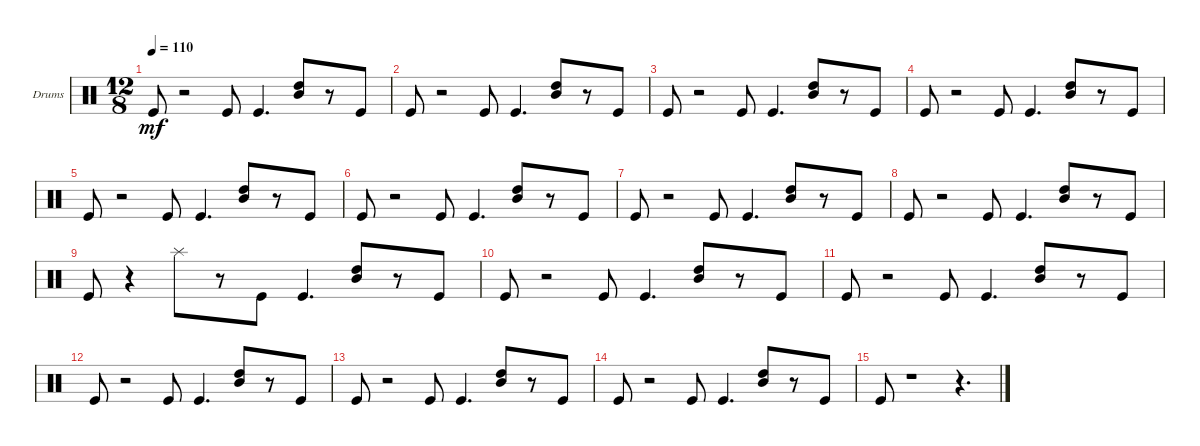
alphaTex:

\bracketExtendMode groupsimilarinstruments
\firstSystemTrackNameOrientation horizontal
\otherSystemsTrackNameOrientation horizontal
\track ("Drum Set" "Drums") {instrument percussion}
\staff {score}
\articulation defaults
\ts (12 8)
\tempo 110
\clef neutral
\ks c "Kick (hit)".8{dy mf}
r.2 "Kick (hit)".8 "Kick (hit)".4{d} ("Mid Tom (hit)" "High Tom (hit)").8 r.8 "Kick (hit)".8 |
"Kick (hit)".8 r.2 "Kick (hit)".8 "Kick (hit)".4{d} ("Mid Tom (hit)" "High Tom (hit)").8 r.8 "Kick (hit)".8 |
"Kick (hit)".8 r.2 "Kick (hit)".8 "Kick (hit)".4{d} ("Mid Tom (hit)" "High Tom (hit)").8 r.8 "Kick (hit)".8 |
"Kick (hit)".8 r.2 "Kick (hit)".8 "Kick (hit)".4{d} ("Mid Tom (hit)" "High Tom (hit)").8 r.8 "Kick (hit)".8 |
"Kick (hit)".8 r.2 "Kick (hit)".8 "Kick (hit)".4{d} ("Mid Tom (hit)" "High Tom (hit)").8 r.8 "Kick (hit)".8 |
"Kick (hit)".8 r.2 "Kick (hit)".8 "Kick (hit)".4{d} ("Mid Tom (hit)" "High Tom (hit)").8 r.8 "Kick (hit)".8 |
"Kick (hit)".8 r.2 "Kick (hit)".8 "Kick (hit)".4{d} ("Mid Tom (hit)" "High Tom (hit)").8 r.8 "Kick (hit)".8 |
"Kick (hit)".8 r.2 "Kick (hit)".8 "Kick (hit)".4{d} ("Mid Tom (hit)" "High Tom (hit)").8 r.8 "Kick (hit)".8 |
"Kick (hit)".8 r.4 "Splash (hit)".8 r.8 "Kick (hit)".8 "Kick (hit)".4{d} ("Mid Tom (hit)" "High Tom (hit)").8 r.8 "Kick (hit)".8 |
"Kick (hit)".8 r.2 "Kick (hit)".8 "Kick (hit)".4{d} ("Mid Tom (hit)" "High Tom (hit)").8 r.8 "Kick (hit)".8 |
"Kick (hit)".8 r.2 "Kick (hit)".8 "Kick (hit)".4{d} ("Mid Tom (hit)" "High Tom (hit)").8 r.8 "Kick (hit)".8 |
"Kick (hit)".8 r.2 "Kick (hit)".8 "Kick (hit)".4{d} ("Mid Tom (hit)" "High Tom (hit)").8 r.8 "Kick (hit)".8 |
"Kick (hit)".8 r.2 "Kick (hit)".8 "Kick (hit)".4{d} ("Mid Tom (hit)" "High Tom (hit)").8 r.8 "Kick (hit)".8 |
"Kick (hit)".8 r.2 "Kick (hit)".8 "Kick (hit)".4{d} ("Mid Tom (hit)" "High Tom (hit)").8 r.8 "Kick (hit)".8 |
"Kick (hit)".8 r.1 r.4{d}
